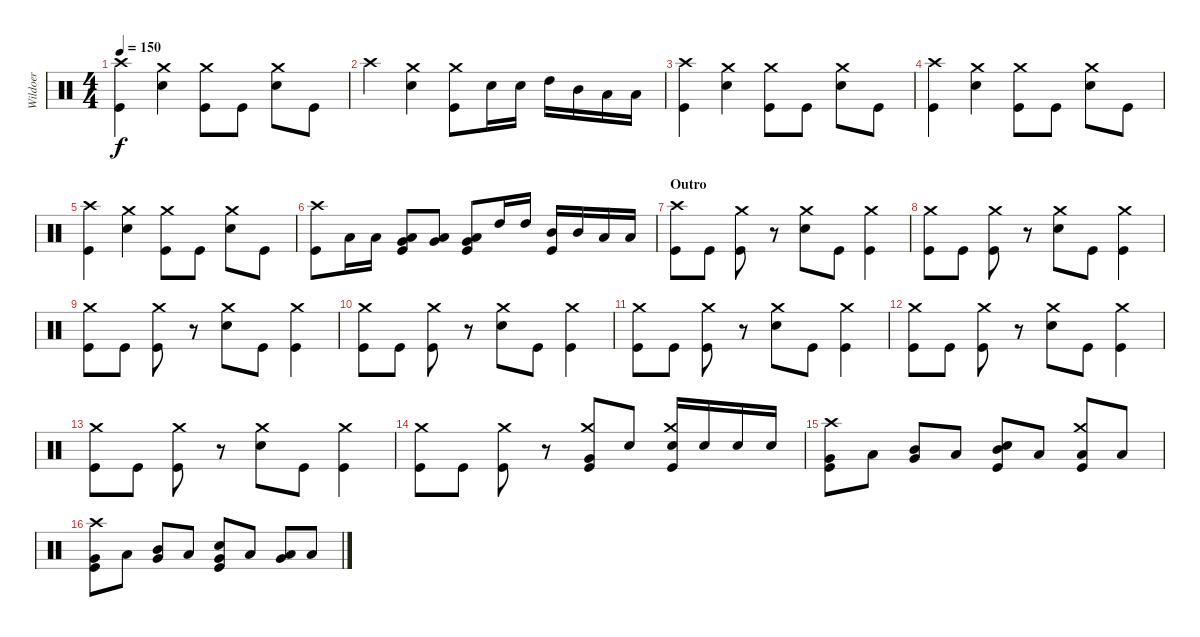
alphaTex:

\track ("Wildoer" "Wildoer") {instrument percussion}
\staff {score}
\articulation defaults
\ts (4 4)
\tempo 150
\clef neutral
\ks c
("Crash high (hit)" "Kick (hit)").4{dy f} ("Crash medium (hit)" "Electric Snare (hit)").4 ("Crash medium (hit)" "Kick (hit)").8 "Kick (hit)".8 ("Crash medium (hit)" "Electric Snare (hit)").8 "Kick (hit)".8 |
"Crash high (hit)".4 ("Crash medium (hit)" "Electric Snare (hit)").4 ("Crash medium (hit)" "Kick (hit)").8 "Electric Snare (hit)".16 "Electric Snare (hit)".16 "High Tom (hit)".16 "Mid Tom (hit)".16 "Low Tom (hit)".16 "Low Tom (hit)".16 |
("Crash high (hit)" "Kick (hit)").4 ("Crash medium (hit)" "Electric Snare (hit)").4 ("Crash medium (hit)" "Kick (hit)").8 "Kick (hit)".8 ("Crash medium (hit)" "Electric Snare (hit)").8 "Kick (hit)".8 |
("Crash high (hit)" "Kick (hit)").4 ("Crash medium (hit)" "Electric Snare (hit)").4 ("Crash medium (hit)" "Kick (hit)").8 "Kick (hit)".8 ("Crash medium (hit)" "Electric Snare (hit)").8 "Kick (hit)".8 |
("Crash high (hit)" "Kick (hit)").4 ("Crash medium (hit)" "Electric Snare (hit)").4 ("Crash medium (hit)" "Kick (hit)").8 "Kick (hit)".8 ("Crash medium (hit)" "Electric Snare (hit)").8 "Kick (hit)".8 |
("Crash high (hit)" "Kick (hit)").8 "Low Tom (hit)".16 "Low Tom (hit)".16 ("Low Floor Tom (hit)" "Very Low Tom (hit)" "Kick (hit)").8 ("Low Floor Tom (hit)" "Very Low Tom (hit)").8 ("Low Floor Tom (hit)" "Very Low Tom (hit)" "Kick (hit)").8 "High Tom (hit)".16 "High Tom (hit)".16 ("Mid Tom (hit)" "Kick (hit)").16 "Mid Tom (hit)".16 "Low Tom (hit)".16 "Low Tom (hit)".16 |
\section ("" "Outro")
("Crash high (hit)" "Kick (hit)").8 "Kick (hit)".8 ("Crash medium (hit)" "Kick (hit)").8 r.8 ("Crash medium (hit)" "Electric Snare (hit)").8 "Kick (hit)".8 ("Crash medium (hit)" "Kick (hit)").4 |
("Crash medium (hit)" "Kick (hit)").8 "Kick (hit)".8 ("Crash medium (hit)" "Kick (hit)").8 r.8 ("Crash medium (hit)" "Electric Snare (hit)").8 "Kick (hit)".8 ("Crash medium (hit)" "Kick (hit)").4 |
("Crash medium (hit)" "Kick (hit)").8 "Kick (hit)".8 ("Crash medium (hit)" "Kick (hit)").8 r.8 ("Crash medium (hit)" "Electric Snare (hit)").8 "Kick (hit)".8 ("Crash medium (hit)" "Kick (hit)").4 |
("Crash medium (hit)" "Kick (hit)").8 "Kick (hit)".8 ("Crash medium (hit)" "Kick (hit)").8 r.8 ("Crash medium (hit)" "Electric Snare (hit)").8 "Kick (hit)".8 ("Crash medium (hit)" "Kick (hit)").4 |
("Crash medium (hit)" "Kick (hit)").8 "Kick (hit)".8 ("Crash medium (hit)" "Kick (hit)").8 r.8 ("Crash medium (hit)" "Electric Snare (hit)").8 "Kick (hit)".8 ("Crash medium (hit)" "Kick (hit)").4 |
("Crash medium (hit)" "Kick (hit)").8 "Kick (hit)".8 ("Crash medium (hit)" "Kick (hit)").8 r.8 ("Crash medium (hit)" "Electric Snare (hit)").8 "Kick (hit)".8 ("Crash medium (hit)" "Kick (hit)").4 |
("Crash medium (hit)" "Kick (hit)").8 "Kick (hit)".8 ("Crash medium (hit)" "Kick (hit)").8 r.8 ("Crash medium (hit)" "Electric Snare (hit)").8 "Kick (hit)".8 ("Crash medium (hit)" "Kick (hit)").4 |
("Crash medium (hit)" "Kick (hit)").8 "Kick (hit)".8 ("Crash medium (hit)" "Kick (hit)").8 r.8 ("Crash medium (hit)" "Very Low Tom (hit)" "Kick (hit)").8 "Electric Snare (hit)".8 ("Crash medium (hit)" "Electric Snare (hit)" "Kick (hit)").16 "Electric Snare (hit)".16 "Electric Snare (hit)".16 "Electric Snare (hit)".16 |
("Crash high (hit)" "Very Low Tom (hit)" "Kick (hit)").8 "Low Floor Tom (hit)".8 ("Mid Tom (hit)" "Very Low Tom (hit)").8 "Low Floor Tom (hit)".8 ("Electric Snare (hit)" "Mid Tom (hit)" "Kick (hit)").8 "Low Floor Tom (hit)".8 ("Crash medium (hit)" "Low Floor Tom (hit)" "Kick (hit)").8 "Low Floor Tom (hit)".8 |
("Crash high (hit)" "Very Low Tom (hit)" "Kick (hit)").8 "Low Floor Tom (hit)".8 ("Mid Tom (hit)" "Very Low Tom (hit)").8 "Low Floor Tom (hit)".8 ("Electric Snare (hit)" "Very Low Tom (hit)" "Kick (hit)").8 "Low Floor Tom (hit)".8 ("Low Tom (hit)" "Very Low Tom (hit)").8 "Low Floor Tom (hit)".8
